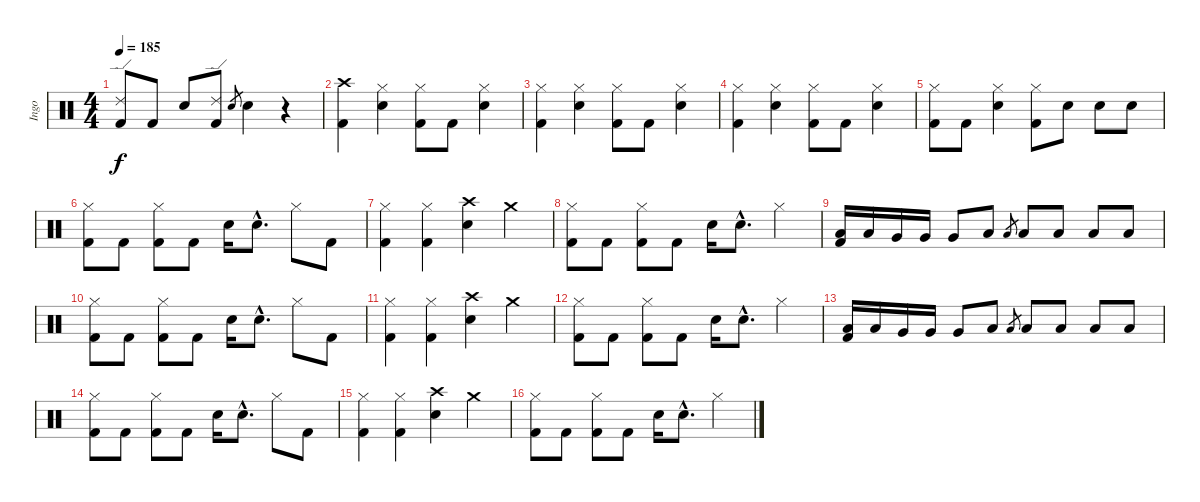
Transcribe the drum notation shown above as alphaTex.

\track ("Ingo" "Ingo") {instrument percussion}
\staff {score}
\articulation defaults
\ts (4 4)
\tempo 185
\clef neutral
\ks c
("Ride (edge) 2" "Kick (hit) 2").8{dy f} "Kick (hit) 2".8 "Electric Snare (hit)".8 ("Ride (edge) 2" "Kick (hit) 2").8 "Electric Snare (hit)".8{gr} "Electric Snare (hit)".4 r.4 |
("Crash high (hit)" "Kick (hit) 2").4 ("Hi-Hat (closed)" "Electric Snare (hit)").4 ("Hi-Hat (closed)" "Kick (hit) 2").8 "Kick (hit) 2".8 ("Hi-Hat (closed)" "Electric Snare (hit)").4 |
("Hi-Hat (closed)" "Kick (hit) 2").4 ("Hi-Hat (closed)" "Electric Snare (hit)").4 ("Hi-Hat (closed)" "Kick (hit) 2").8 "Kick (hit) 2".8 ("Hi-Hat (closed)" "Electric Snare (hit)").4 |
("Hi-Hat (closed)" "Kick (hit) 2").4 ("Hi-Hat (closed)" "Electric Snare (hit)").4 ("Hi-Hat (closed)" "Kick (hit) 2").8 "Kick (hit) 2".8 ("Hi-Hat (closed)" "Electric Snare (hit)").4 |
("Hi-Hat (closed)" "Kick (hit) 2").8 "Kick (hit) 2".8 ("Hi-Hat (closed)" "Electric Snare (hit)").4 ("Hi-Hat (closed)" "Kick (hit) 2").8 "Electric Snare (hit)".8 "Electric Snare (hit)".8 "Electric Snare (hit)".8 |
("Hi-Hat (closed)" "Kick (hit) 2").8 "Kick (hit) 2".8 ("Hi-Hat (closed)" "Kick (hit) 2").8 "Kick (hit) 2".8 "Electric Snare (hit)".16 "Electric Snare (hit)"{hac}.8{d} "Hi-Hat (closed)".8 "Kick (hit) 2".8 |
("Hi-Hat (closed)" "Kick (hit) 2").4 ("Hi-Hat (closed)" "Kick (hit) 2").4 ("Crash high (hit)" "Electric Snare (hit)").4 "Crash medium (hit)".4 |
("Hi-Hat (closed)" "Kick (hit) 2").8 "Kick (hit) 2".8 ("Hi-Hat (closed)" "Kick (hit) 2").8 "Kick (hit) 2".8 "Electric Snare (hit)".16 "Electric Snare (hit)"{hac}.8{d} "Hi-Hat (closed)".4 |
("Low Tom (hit)" "Kick (hit) 2").16 "Low Tom (hit)".16 "Very Low Tom (hit)".16 "Very Low Tom (hit)".16 "Very Low Tom (hit)".8 "Low Tom (hit)".8 "Low Floor Tom (hit)".8{gr} "Low Floor Tom (hit)".8 "Low Floor Tom (hit)".8 "Low Floor Tom (hit)".8 "Low Floor Tom (hit)".8 |
("Hi-Hat (closed)" "Kick (hit) 2").8 "Kick (hit) 2".8 ("Hi-Hat (closed)" "Kick (hit) 2").8 "Kick (hit) 2".8 "Electric Snare (hit)".16 "Electric Snare (hit)"{hac}.8{d} "Hi-Hat (closed)".8 "Kick (hit) 2".8 |
("Hi-Hat (closed)" "Kick (hit) 2").4 ("Hi-Hat (closed)" "Kick (hit) 2").4 ("Crash high (hit)" "Electric Snare (hit)").4 "Crash medium (hit)".4 |
("Hi-Hat (closed)" "Kick (hit) 2").8 "Kick (hit) 2".8 ("Hi-Hat (closed)" "Kick (hit) 2").8 "Kick (hit) 2".8 "Electric Snare (hit)".16 "Electric Snare (hit)"{hac}.8{d} "Hi-Hat (closed)".4 |
("Low Tom (hit)" "Kick (hit) 2").16 "Low Tom (hit)".16 "Very Low Tom (hit)".16 "Very Low Tom (hit)".16 "Very Low Tom (hit)".8 "Low Tom (hit)".8 "Low Floor Tom (hit)".8{gr} "Low Floor Tom (hit)".8 "Low Floor Tom (hit)".8 "Low Floor Tom (hit)".8 "Low Floor Tom (hit)".8 |
("Hi-Hat (closed)" "Kick (hit) 2").8 "Kick (hit) 2".8 ("Hi-Hat (closed)" "Kick (hit) 2").8 "Kick (hit) 2".8 "Electric Snare (hit)".16 "Electric Snare (hit)"{hac}.8{d} "Hi-Hat (closed)".8 "Kick (hit) 2".8 |
("Hi-Hat (closed)" "Kick (hit) 2").4 ("Hi-Hat (closed)" "Kick (hit) 2").4 ("Crash high (hit)" "Electric Snare (hit)").4 "Crash medium (hit)".4 |
("Hi-Hat (closed)" "Kick (hit) 2").8 "Kick (hit) 2".8 ("Hi-Hat (closed)" "Kick (hit) 2").8 "Kick (hit) 2".8 "Electric Snare (hit)".16 "Electric Snare (hit)"{hac}.8{d} "Hi-Hat (closed)".4
